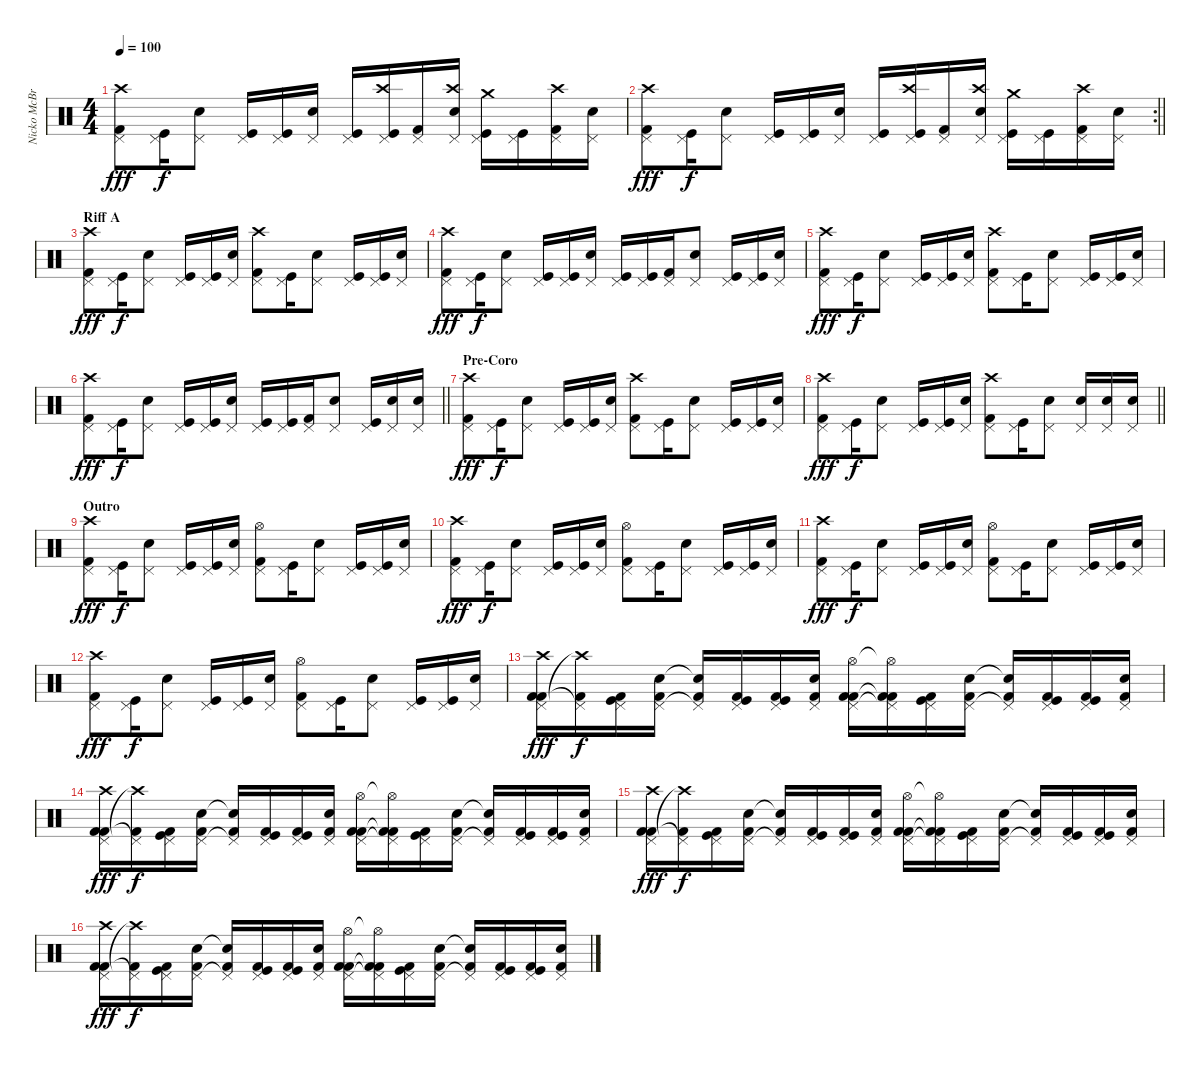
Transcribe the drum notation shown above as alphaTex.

\track ("Nicko McBrain" "Nicko McBr") {instrument percussion}
\staff {score}
\articulation defaults
\ts (4 4)
\tempo 100
\clef neutral
\ks c
("Kick (hit) 2" "Pedal Hi-Hat (hit)" "Crash high (hit)").8{dy fff} ("Kick (hit)" "Pedal Hi-Hat (hit)").16{dy f} ("Snare (hit) 2" "Pedal Hi-Hat (hit)").8 ("Kick (hit)" "Pedal Hi-Hat (hit)").16 ("Kick (hit)" "Pedal Hi-Hat (hit)").16 ("Snare (hit) 2" "Pedal Hi-Hat (hit)").16 ("Kick (hit)" "Pedal Hi-Hat (hit)").16 ("Kick (hit)" "Pedal Hi-Hat (hit)" "Crash high (hit)").16 ("Kick (hit) 2" "Pedal Hi-Hat (hit)").16 ("Snare (hit) 2" "Pedal Hi-Hat (hit)" "Crash high (hit)").16 ("Kick (hit)" "Pedal Hi-Hat (hit)" "Crash medium (hit)").16 ("Kick (hit)" "Pedal Hi-Hat (hit)").16 ("Kick (hit) 2" "Pedal Hi-Hat (hit)" "Crash high (hit)").16 ("Snare (hit) 2" "Pedal Hi-Hat (hit)").16 |
\rc 2
\barLineRight lightlight
("Kick (hit) 2" "Pedal Hi-Hat (hit)" "Crash high (hit)").8{dy fff} ("Kick (hit)" "Pedal Hi-Hat (hit)").16{dy f} ("Snare (hit) 2" "Pedal Hi-Hat (hit)").8 ("Kick (hit)" "Pedal Hi-Hat (hit)").16 ("Kick (hit)" "Pedal Hi-Hat (hit)").16 ("Snare (hit) 2" "Pedal Hi-Hat (hit)").16 ("Kick (hit)" "Pedal Hi-Hat (hit)").16 ("Kick (hit)" "Pedal Hi-Hat (hit)" "Crash high (hit)").16 ("Kick (hit) 2" "Pedal Hi-Hat (hit)").16 ("Snare (hit) 2" "Pedal Hi-Hat (hit)" "Crash high (hit)").16 ("Kick (hit)" "Pedal Hi-Hat (hit)" "Crash medium (hit)").16 ("Kick (hit)" "Pedal Hi-Hat (hit)").16 ("Kick (hit) 2" "Pedal Hi-Hat (hit)" "Crash high (hit)").16 ("Snare (hit) 2" "Pedal Hi-Hat (hit)").16 |
\section ("" "Riff A")
("Kick (hit) 2" "Pedal Hi-Hat (hit)" "Crash high (hit)").8{dy fff} ("Kick (hit)" "Pedal Hi-Hat (hit)").16{dy f} ("Snare (hit) 2" "Pedal Hi-Hat (hit)").8 ("Kick (hit)" "Pedal Hi-Hat (hit)").16 ("Kick (hit)" "Pedal Hi-Hat (hit)").16 ("Snare (hit) 2" "Pedal Hi-Hat (hit)").16 ("Kick (hit) 2" "Pedal Hi-Hat (hit)" "Crash high (hit)").8 ("Kick (hit)" "Pedal Hi-Hat (hit)").16 ("Snare (hit) 2" "Pedal Hi-Hat (hit)").8 ("Kick (hit)" "Pedal Hi-Hat (hit)").16 ("Kick (hit)" "Pedal Hi-Hat (hit)").16 ("Snare (hit) 2" "Pedal Hi-Hat (hit)").16 |
("Kick (hit) 2" "Pedal Hi-Hat (hit)" "Crash high (hit)").8{dy fff} ("Kick (hit)" "Pedal Hi-Hat (hit)").16{dy f} ("Snare (hit) 2" "Pedal Hi-Hat (hit)").8 ("Kick (hit)" "Pedal Hi-Hat (hit)").16 ("Kick (hit)" "Pedal Hi-Hat (hit)").16 ("Snare (hit) 2" "Pedal Hi-Hat (hit)").16 ("Kick (hit)" "Pedal Hi-Hat (hit)").16 ("Kick (hit)" "Pedal Hi-Hat (hit)").16 ("Kick (hit) 2" "Pedal Hi-Hat (hit)").16 ("Snare (hit) 2" "Pedal Hi-Hat (hit)").8 ("Kick (hit)" "Pedal Hi-Hat (hit)").16 ("Kick (hit)" "Pedal Hi-Hat (hit)").16 ("Snare (hit) 2" "Pedal Hi-Hat (hit)").16 |
("Kick (hit) 2" "Pedal Hi-Hat (hit)" "Crash high (hit)").8{dy fff} ("Kick (hit)" "Pedal Hi-Hat (hit)").16{dy f} ("Snare (hit) 2" "Pedal Hi-Hat (hit)").8 ("Kick (hit)" "Pedal Hi-Hat (hit)").16 ("Kick (hit)" "Pedal Hi-Hat (hit)").16 ("Snare (hit) 2" "Pedal Hi-Hat (hit)").16 ("Kick (hit) 2" "Pedal Hi-Hat (hit)" "Crash high (hit)").8 ("Kick (hit)" "Pedal Hi-Hat (hit)").16 ("Snare (hit) 2" "Pedal Hi-Hat (hit)").8 ("Kick (hit)" "Pedal Hi-Hat (hit)").16 ("Kick (hit)" "Pedal Hi-Hat (hit)").16 ("Snare (hit) 2" "Pedal Hi-Hat (hit)").16 |
\barLineRight lightlight
("Kick (hit) 2" "Pedal Hi-Hat (hit)" "Crash high (hit)").8{dy fff} ("Kick (hit)" "Pedal Hi-Hat (hit)").16{dy f} ("Snare (hit) 2" "Pedal Hi-Hat (hit)").8 ("Kick (hit)" "Pedal Hi-Hat (hit)").16 ("Kick (hit)" "Pedal Hi-Hat (hit)").16 ("Snare (hit) 2" "Pedal Hi-Hat (hit)").16 ("Kick (hit)" "Pedal Hi-Hat (hit)").16 ("Kick (hit)" "Pedal Hi-Hat (hit)").16 ("Kick (hit) 2" "Pedal Hi-Hat (hit)").16 ("Snare (hit) 2" "Pedal Hi-Hat (hit)").8 ("Kick (hit)" "Pedal Hi-Hat (hit)").16 ("Snare (hit) 2" "Pedal Hi-Hat (hit)").16 ("Snare (hit) 2" "Pedal Hi-Hat (hit)").16 |
\section ("" "Pre-Coro")
("Kick (hit) 2" "Pedal Hi-Hat (hit)" "Crash high (hit)").8{dy fff} ("Kick (hit)" "Pedal Hi-Hat (hit)").16{dy f} ("Snare (hit) 2" "Pedal Hi-Hat (hit)").8 ("Kick (hit)" "Pedal Hi-Hat (hit)").16 ("Kick (hit)" "Pedal Hi-Hat (hit)").16 ("Snare (hit) 2" "Pedal Hi-Hat (hit)").16 ("Kick (hit) 2" "Pedal Hi-Hat (hit)" "Crash high (hit)").8 ("Kick (hit)" "Pedal Hi-Hat (hit)").16 ("Snare (hit) 2" "Pedal Hi-Hat (hit)").8 ("Kick (hit)" "Pedal Hi-Hat (hit)").16 ("Kick (hit)" "Pedal Hi-Hat (hit)").16 ("Snare (hit) 2" "Pedal Hi-Hat (hit)").16 |
\barLineRight lightlight
("Kick (hit) 2" "Pedal Hi-Hat (hit)" "Crash high (hit)").8{dy fff} ("Kick (hit)" "Pedal Hi-Hat (hit)").16{dy f} ("Snare (hit) 2" "Pedal Hi-Hat (hit)").8 ("Kick (hit)" "Pedal Hi-Hat (hit)").16 ("Kick (hit)" "Pedal Hi-Hat (hit)").16 ("Snare (hit) 2" "Pedal Hi-Hat (hit)").16 ("Kick (hit) 2" "Pedal Hi-Hat (hit)" "Crash high (hit)").8 ("Kick (hit)" "Pedal Hi-Hat (hit)").16 ("Snare (hit) 2" "Pedal Hi-Hat (hit)").8 ("Snare (hit) 2" "Pedal Hi-Hat (hit)").16 ("Snare (hit) 2" "Pedal Hi-Hat (hit)").16 ("Snare (hit) 2" "Pedal Hi-Hat (hit)").16 |
\section ("" "Outro")
("Kick (hit) 2" "Pedal Hi-Hat (hit)" "Crash high (hit)").8{dy fff} ("Kick (hit)" "Pedal Hi-Hat (hit)").16{dy f} ("Snare (hit) 2" "Pedal Hi-Hat (hit)").8 ("Kick (hit)" "Pedal Hi-Hat (hit)").16 ("Kick (hit)" "Pedal Hi-Hat (hit)").16 ("Snare (hit) 2" "Pedal Hi-Hat (hit)").16 ("Kick (hit) 2" "Pedal Hi-Hat (hit)" "Hi-Hat (open)").8 ("Kick (hit)" "Pedal Hi-Hat (hit)").16 ("Snare (hit) 2" "Pedal Hi-Hat (hit)").8 ("Kick (hit)" "Pedal Hi-Hat (hit)").16 ("Kick (hit)" "Pedal Hi-Hat (hit)").16 ("Snare (hit) 2" "Pedal Hi-Hat (hit)").16 |
("Kick (hit) 2" "Pedal Hi-Hat (hit)" "Crash high (hit)").8{dy fff} ("Kick (hit)" "Pedal Hi-Hat (hit)").16{dy f} ("Snare (hit) 2" "Pedal Hi-Hat (hit)").8 ("Kick (hit)" "Pedal Hi-Hat (hit)").16 ("Kick (hit)" "Pedal Hi-Hat (hit)").16 ("Snare (hit) 2" "Pedal Hi-Hat (hit)").16 ("Kick (hit) 2" "Pedal Hi-Hat (hit)" "Hi-Hat (open)").8 ("Kick (hit)" "Pedal Hi-Hat (hit)").16 ("Snare (hit) 2" "Pedal Hi-Hat (hit)").8 ("Kick (hit)" "Pedal Hi-Hat (hit)").16 ("Kick (hit)" "Pedal Hi-Hat (hit)").16 ("Snare (hit) 2" "Pedal Hi-Hat (hit)").16 |
("Kick (hit) 2" "Pedal Hi-Hat (hit)" "Crash high (hit)").8{dy fff} ("Kick (hit)" "Pedal Hi-Hat (hit)").16{dy f} ("Snare (hit) 2" "Pedal Hi-Hat (hit)").8 ("Kick (hit)" "Pedal Hi-Hat (hit)").16 ("Kick (hit)" "Pedal Hi-Hat (hit)").16 ("Snare (hit) 2" "Pedal Hi-Hat (hit)").16 ("Kick (hit) 2" "Pedal Hi-Hat (hit)" "Hi-Hat (open)").8 ("Kick (hit)" "Pedal Hi-Hat (hit)").16 ("Snare (hit) 2" "Pedal Hi-Hat (hit)").8 ("Kick (hit)" "Pedal Hi-Hat (hit)").16 ("Kick (hit)" "Pedal Hi-Hat (hit)").16 ("Snare (hit) 2" "Pedal Hi-Hat (hit)").16 |
("Kick (hit) 2" "Pedal Hi-Hat (hit)" "Crash high (hit)").8{dy fff} ("Kick (hit)" "Pedal Hi-Hat (hit)").16{dy f} ("Snare (hit) 2" "Pedal Hi-Hat (hit)").8 ("Kick (hit)" "Pedal Hi-Hat (hit)").16 ("Kick (hit)" "Pedal Hi-Hat (hit)").16 ("Snare (hit) 2" "Pedal Hi-Hat (hit)").16 ("Kick (hit) 2" "Pedal Hi-Hat (hit)" "Hi-Hat (open)").8 ("Kick (hit)" "Pedal Hi-Hat (hit)").16 ("Snare (hit) 2" "Pedal Hi-Hat (hit)").8 ("Kick (hit)" "Pedal Hi-Hat (hit)").16 ("Kick (hit)" "Pedal Hi-Hat (hit)").16 ("Snare (hit) 2" "Pedal Hi-Hat (hit)").16 |
("Kick (hit) 2" "Pedal Hi-Hat (hit)" "Crash high (hit)" "Kick (hit) 2").16{dy fff} ("Pedal Hi-Hat (hit)"{t} "Crash high (hit)"{t} "Kick (hit) 2").16{dy f} ("Kick (hit)" "Pedal Hi-Hat (hit)" "Kick (hit) 2").16 ("Snare (hit) 2" "Pedal Hi-Hat (hit)" "Kick (hit) 2").16 ("Snare (hit) 2"{t} "Pedal Hi-Hat (hit)"{t} "Kick (hit) 2").16 ("Kick (hit)" "Pedal Hi-Hat (hit)" "Kick (hit) 2").16 ("Kick (hit)" "Pedal Hi-Hat (hit)" "Kick (hit) 2").16 ("Snare (hit) 2" "Pedal Hi-Hat (hit)" "Kick (hit) 2").16 ("Kick (hit) 2" "Pedal Hi-Hat (hit)" "Hi-Hat (open)" "Kick (hit) 2").16 ("Kick (hit) 2"{t} "Pedal Hi-Hat (hit)"{t} "Hi-Hat (open)"{t} "Kick (hit) 2").16 ("Kick (hit)" "Pedal Hi-Hat (hit)" "Kick (hit) 2").16 ("Snare (hit) 2" "Pedal Hi-Hat (hit)" "Kick (hit) 2").16 ("Snare (hit) 2"{t} "Pedal Hi-Hat (hit)"{t} "Kick (hit) 2").16 ("Kick (hit)" "Pedal Hi-Hat (hit)" "Kick (hit) 2").16 ("Kick (hit)" "Pedal Hi-Hat (hit)" "Kick (hit) 2").16 ("Snare (hit) 2" "Pedal Hi-Hat (hit)" "Kick (hit) 2").16 |
("Kick (hit) 2" "Pedal Hi-Hat (hit)" "Crash high (hit)" "Kick (hit) 2").16{dy fff} ("Pedal Hi-Hat (hit)"{t} "Crash high (hit)"{t} "Kick (hit) 2").16{dy f} ("Kick (hit)" "Pedal Hi-Hat (hit)" "Kick (hit) 2").16 ("Snare (hit) 2" "Pedal Hi-Hat (hit)" "Kick (hit) 2").16 ("Snare (hit) 2"{t} "Pedal Hi-Hat (hit)"{t} "Kick (hit) 2").16 ("Kick (hit)" "Pedal Hi-Hat (hit)" "Kick (hit) 2").16 ("Kick (hit)" "Pedal Hi-Hat (hit)" "Kick (hit) 2").16 ("Snare (hit) 2" "Pedal Hi-Hat (hit)" "Kick (hit) 2").16 ("Kick (hit) 2" "Pedal Hi-Hat (hit)" "Hi-Hat (open)" "Kick (hit) 2").16 ("Kick (hit) 2"{t} "Pedal Hi-Hat (hit)"{t} "Hi-Hat (open)"{t} "Kick (hit) 2").16 ("Kick (hit)" "Pedal Hi-Hat (hit)" "Kick (hit) 2").16 ("Snare (hit) 2" "Pedal Hi-Hat (hit)" "Kick (hit) 2").16 ("Snare (hit) 2"{t} "Pedal Hi-Hat (hit)"{t} "Kick (hit) 2").16 ("Kick (hit)" "Pedal Hi-Hat (hit)" "Kick (hit) 2").16 ("Kick (hit)" "Pedal Hi-Hat (hit)" "Kick (hit) 2").16 ("Snare (hit) 2" "Pedal Hi-Hat (hit)" "Kick (hit) 2").16 |
("Kick (hit) 2" "Pedal Hi-Hat (hit)" "Crash high (hit)" "Kick (hit) 2").16{dy fff} ("Pedal Hi-Hat (hit)"{t} "Crash high (hit)"{t} "Kick (hit) 2").16{dy f} ("Kick (hit)" "Pedal Hi-Hat (hit)" "Kick (hit) 2").16 ("Snare (hit) 2" "Pedal Hi-Hat (hit)" "Kick (hit) 2").16 ("Snare (hit) 2"{t} "Pedal Hi-Hat (hit)"{t} "Kick (hit) 2").16 ("Kick (hit)" "Pedal Hi-Hat (hit)" "Kick (hit) 2").16 ("Kick (hit)" "Pedal Hi-Hat (hit)" "Kick (hit) 2").16 ("Snare (hit) 2" "Pedal Hi-Hat (hit)" "Kick (hit) 2").16 ("Kick (hit) 2" "Pedal Hi-Hat (hit)" "Hi-Hat (open)" "Kick (hit) 2").16 ("Kick (hit) 2"{t} "Pedal Hi-Hat (hit)"{t} "Hi-Hat (open)"{t} "Kick (hit) 2").16 ("Kick (hit)" "Pedal Hi-Hat (hit)" "Kick (hit) 2").16 ("Snare (hit) 2" "Pedal Hi-Hat (hit)" "Kick (hit) 2").16 ("Snare (hit) 2"{t} "Pedal Hi-Hat (hit)"{t} "Kick (hit) 2").16 ("Kick (hit)" "Pedal Hi-Hat (hit)" "Kick (hit) 2").16 ("Kick (hit)" "Pedal Hi-Hat (hit)" "Kick (hit) 2").16 ("Snare (hit) 2" "Pedal Hi-Hat (hit)" "Kick (hit) 2").16 |
("Kick (hit) 2" "Pedal Hi-Hat (hit)" "Crash high (hit)" "Kick (hit) 2").16{dy fff} ("Pedal Hi-Hat (hit)"{t} "Crash high (hit)"{t} "Kick (hit) 2").16{dy f} ("Kick (hit)" "Pedal Hi-Hat (hit)" "Kick (hit) 2").16 ("Snare (hit) 2" "Pedal Hi-Hat (hit)" "Kick (hit) 2").16 ("Snare (hit) 2"{t} "Pedal Hi-Hat (hit)"{t} "Kick (hit) 2").16 ("Kick (hit)" "Pedal Hi-Hat (hit)" "Kick (hit) 2").16 ("Kick (hit)" "Pedal Hi-Hat (hit)" "Kick (hit) 2").16 ("Snare (hit) 2" "Pedal Hi-Hat (hit)" "Kick (hit) 2").16 ("Kick (hit) 2" "Pedal Hi-Hat (hit)" "Hi-Hat (open)" "Kick (hit) 2").16 ("Kick (hit) 2"{t} "Pedal Hi-Hat (hit)"{t} "Hi-Hat (open)"{t} "Kick (hit) 2").16 ("Kick (hit)" "Pedal Hi-Hat (hit)" "Kick (hit) 2").16 ("Snare (hit) 2" "Pedal Hi-Hat (hit)" "Kick (hit) 2").16 ("Snare (hit) 2"{t} "Pedal Hi-Hat (hit)"{t} "Kick (hit) 2").16 ("Kick (hit)" "Pedal Hi-Hat (hit)" "Kick (hit) 2").16 ("Kick (hit)" "Pedal Hi-Hat (hit)" "Kick (hit) 2").16 ("Snare (hit) 2" "Pedal Hi-Hat (hit)" "Kick (hit) 2").16
